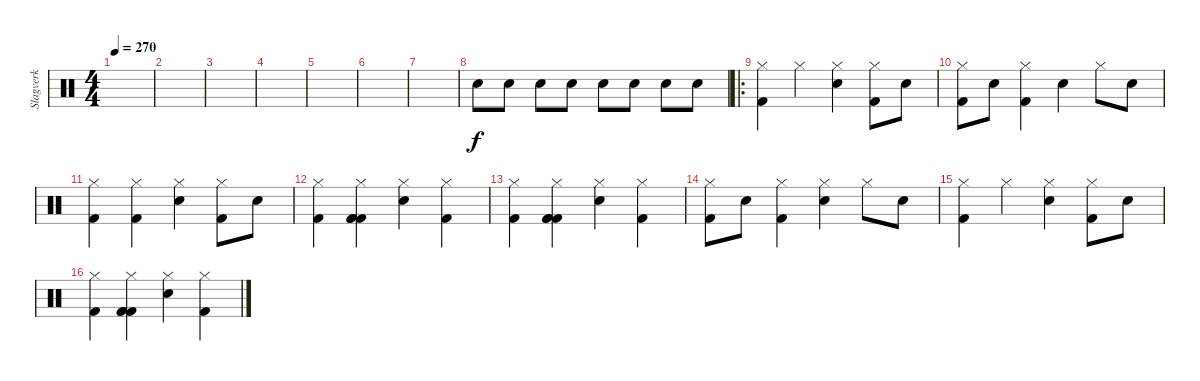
\track ("Slagverk" "Slagverk") {instrument percussion}
\staff {score}
\articulation defaults
\ts (4 4)
\tempo 270
\clef neutral
\ks c
|
|
|
|
|
|
|
"Electric Snare (hit)".8 "Electric Snare (hit)".8 "Electric Snare (hit)".8 "Electric Snare (hit)".8 "Electric Snare (hit)".8 "Electric Snare (hit)".8 "Electric Snare (hit)".8 "Electric Snare (hit)".8 |
\ro
("Hi-Hat (closed)" "Kick (hit) 2").4 "Hi-Hat (closed)".4 ("Hi-Hat (closed)" "Electric Snare (hit)").4 ("Hi-Hat (closed)" "Kick (hit) 2").8 "Electric Snare (hit)".8 |
("Hi-Hat (closed)" "Kick (hit) 2").8 "Electric Snare (hit)".8 ("Hi-Hat (closed)" "Kick (hit) 2").4 "Electric Snare (hit)".4 "Hi-Hat (closed)".8 "Electric Snare (hit)".8 |
("Hi-Hat (closed)" "Kick (hit) 2").4 ("Hi-Hat (closed)" "Kick (hit) 2").4 ("Hi-Hat (closed)" "Electric Snare (hit)").4 ("Hi-Hat (closed)" "Kick (hit) 2").8 "Electric Snare (hit)".8 |
("Hi-Hat (closed)" "Kick (hit) 2").4 ("Hi-Hat (closed)" "Kick (hit) 2" "Kick (hit) 2" "Kick (hit) 2").4 ("Hi-Hat (closed)" "Electric Snare (hit)").4 ("Hi-Hat (closed)" "Kick (hit) 2").4 |
("Hi-Hat (closed)" "Kick (hit) 2").4 ("Hi-Hat (closed)" "Kick (hit) 2" "Kick (hit) 2" "Kick (hit) 2").4 ("Hi-Hat (closed)" "Electric Snare (hit)").4 ("Hi-Hat (closed)" "Kick (hit) 2").4 |
("Hi-Hat (closed)" "Kick (hit) 2").8 "Electric Snare (hit)".8 ("Hi-Hat (closed)" "Kick (hit) 2").4 ("Hi-Hat (closed)" "Electric Snare (hit)").4 "Hi-Hat (closed)".8 "Electric Snare (hit)".8 |
("Hi-Hat (closed)" "Kick (hit) 2").4 "Hi-Hat (closed)".4 ("Hi-Hat (closed)" "Electric Snare (hit)").4 ("Hi-Hat (closed)" "Kick (hit) 2").8 "Electric Snare (hit)".8 |
("Hi-Hat (closed)" "Kick (hit) 2").4 ("Hi-Hat (closed)" "Kick (hit) 2" "Kick (hit) 2" "Kick (hit) 2").4 ("Hi-Hat (closed)" "Electric Snare (hit)").4 ("Hi-Hat (closed)" "Kick (hit) 2").4
